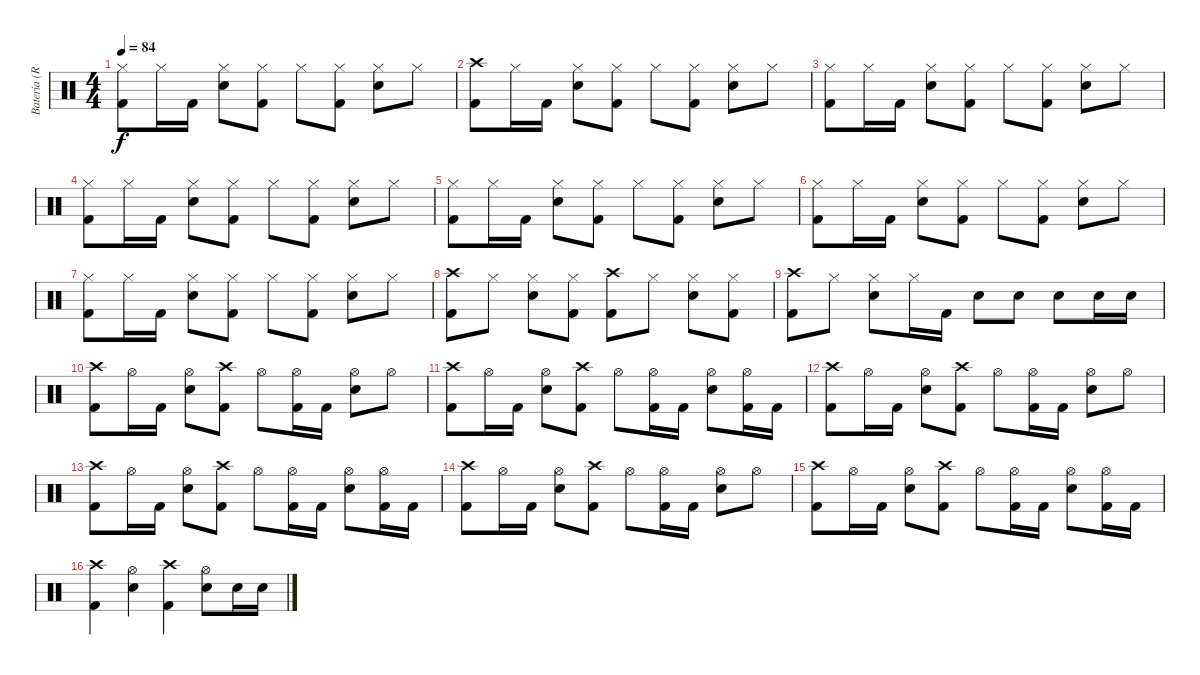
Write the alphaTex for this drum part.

\track ("Bateria (Robert Sweet)" "Bateria (R") {instrument percussion}
\staff {score}
\articulation defaults
\ts (4 4)
\tempo 84
\clef neutral
\ks c
("Hi-Hat (closed)" "Kick (hit) 2").8{dy f} "Hi-Hat (closed)".16 "Kick (hit) 2".16 ("Electric Snare (hit)" "Hi-Hat (closed)").8 ("Hi-Hat (closed)" "Kick (hit) 2").8 "Hi-Hat (closed)".8 ("Hi-Hat (closed)" "Kick (hit) 2").8 ("Electric Snare (hit)" "Hi-Hat (closed)").8 "Hi-Hat (closed)".8 |
("Crash high (hit)" "Kick (hit) 2").8 "Hi-Hat (closed)".16 "Kick (hit) 2".16 ("Electric Snare (hit)" "Hi-Hat (closed)").8 ("Hi-Hat (closed)" "Kick (hit) 2").8 "Hi-Hat (closed)".8 ("Hi-Hat (closed)" "Kick (hit) 2").8 ("Electric Snare (hit)" "Hi-Hat (closed)").8 "Hi-Hat (closed)".8 |
("Hi-Hat (closed)" "Kick (hit) 2").8 "Hi-Hat (closed)".16 "Kick (hit) 2".16 ("Electric Snare (hit)" "Hi-Hat (closed)").8 ("Hi-Hat (closed)" "Kick (hit) 2").8 "Hi-Hat (closed)".8 ("Hi-Hat (closed)" "Kick (hit) 2").8 ("Electric Snare (hit)" "Hi-Hat (closed)").8 "Hi-Hat (closed)".8 |
("Hi-Hat (closed)" "Kick (hit) 2").8 "Hi-Hat (closed)".16 "Kick (hit) 2".16 ("Electric Snare (hit)" "Hi-Hat (closed)").8 ("Hi-Hat (closed)" "Kick (hit) 2").8 "Hi-Hat (closed)".8 ("Hi-Hat (closed)" "Kick (hit) 2").8 ("Electric Snare (hit)" "Hi-Hat (closed)").8 "Hi-Hat (closed)".8 |
("Hi-Hat (closed)" "Kick (hit) 2").8 "Hi-Hat (closed)".16 "Kick (hit) 2".16 ("Electric Snare (hit)" "Hi-Hat (closed)").8 ("Hi-Hat (closed)" "Kick (hit) 2").8 "Hi-Hat (closed)".8 ("Hi-Hat (closed)" "Kick (hit) 2").8 ("Electric Snare (hit)" "Hi-Hat (closed)").8 "Hi-Hat (closed)".8 |
("Hi-Hat (closed)" "Kick (hit) 2").8 "Hi-Hat (closed)".16 "Kick (hit) 2".16 ("Electric Snare (hit)" "Hi-Hat (closed)").8 ("Hi-Hat (closed)" "Kick (hit) 2").8 "Hi-Hat (closed)".8 ("Hi-Hat (closed)" "Kick (hit) 2").8 ("Electric Snare (hit)" "Hi-Hat (closed)").8 "Hi-Hat (closed)".8 |
("Hi-Hat (closed)" "Kick (hit) 2").8 "Hi-Hat (closed)".16 "Kick (hit) 2".16 ("Electric Snare (hit)" "Hi-Hat (closed)").8 ("Hi-Hat (closed)" "Kick (hit) 2").8 "Hi-Hat (closed)".8 ("Hi-Hat (closed)" "Kick (hit) 2").8 ("Electric Snare (hit)" "Hi-Hat (closed)").8 "Hi-Hat (closed)".8 |
("Crash high (hit)" "Kick (hit) 2").8 "Hi-Hat (closed)".8 ("Electric Snare (hit)" "Hi-Hat (closed)").8 ("Hi-Hat (closed)" "Kick (hit) 2").8 ("Crash high (hit)" "Kick (hit) 2").8 "Hi-Hat (closed)".8 ("Electric Snare (hit)" "Hi-Hat (closed)").8 ("Hi-Hat (closed)" "Kick (hit) 2").8 |
("Crash high (hit)" "Kick (hit) 2").8 "Hi-Hat (closed)".8 ("Electric Snare (hit)" "Hi-Hat (closed)").8 "Hi-Hat (closed)".16 "Kick (hit) 2".16 "Electric Snare (hit)".8 "Electric Snare (hit)".8 "Electric Snare (hit)".8 "Electric Snare (hit)".16 "Electric Snare (hit)".16 |
("Crash high (hit)" "Kick (hit) 2").8 "Hi-Hat (open)".16 "Kick (hit) 2".16 ("Electric Snare (hit)" "Hi-Hat (open)").8 ("Crash high (hit)" "Kick (hit) 2").8 "Hi-Hat (open)".8 ("Hi-Hat (open)" "Kick (hit) 2").16 "Kick (hit) 2".16 ("Electric Snare (hit)" "Hi-Hat (open)").8 "Hi-Hat (open)".8 |
("Crash high (hit)" "Kick (hit) 2").8 "Hi-Hat (open)".16 "Kick (hit) 2".16 ("Electric Snare (hit)" "Hi-Hat (open)").8 ("Crash high (hit)" "Kick (hit) 2").8 "Hi-Hat (open)".8 ("Hi-Hat (open)" "Kick (hit) 2").16 "Kick (hit) 2".16 ("Electric Snare (hit)" "Hi-Hat (open)").8 ("Hi-Hat (open)" "Kick (hit) 2").16 "Kick (hit) 2".16 |
("Crash high (hit)" "Kick (hit) 2").8 "Hi-Hat (open)".16 "Kick (hit) 2".16 ("Electric Snare (hit)" "Hi-Hat (open)").8 ("Crash high (hit)" "Kick (hit) 2").8 "Hi-Hat (open)".8 ("Hi-Hat (open)" "Kick (hit) 2").16 "Kick (hit) 2".16 ("Electric Snare (hit)" "Hi-Hat (open)").8 "Hi-Hat (open)".8 |
("Crash high (hit)" "Kick (hit) 2").8 "Hi-Hat (open)".16 "Kick (hit) 2".16 ("Electric Snare (hit)" "Hi-Hat (open)").8 ("Crash high (hit)" "Kick (hit) 2").8 "Hi-Hat (open)".8 ("Hi-Hat (open)" "Kick (hit) 2").16 "Kick (hit) 2".16 ("Electric Snare (hit)" "Hi-Hat (open)").8 ("Hi-Hat (open)" "Kick (hit) 2").16 "Kick (hit) 2".16 |
("Crash high (hit)" "Kick (hit) 2").8 "Hi-Hat (open)".16 "Kick (hit) 2".16 ("Electric Snare (hit)" "Hi-Hat (open)").8 ("Crash high (hit)" "Kick (hit) 2").8 "Hi-Hat (open)".8 ("Hi-Hat (open)" "Kick (hit) 2").16 "Kick (hit) 2".16 ("Electric Snare (hit)" "Hi-Hat (open)").8 "Hi-Hat (open)".8 |
("Crash high (hit)" "Kick (hit) 2").8 "Hi-Hat (open)".16 "Kick (hit) 2".16 ("Electric Snare (hit)" "Hi-Hat (open)").8 ("Crash high (hit)" "Kick (hit) 2").8 "Hi-Hat (open)".8 ("Hi-Hat (open)" "Kick (hit) 2").16 "Kick (hit) 2".16 ("Electric Snare (hit)" "Hi-Hat (open)").8 ("Hi-Hat (open)" "Kick (hit) 2").16 "Kick (hit) 2".16 |
("Crash high (hit)" "Kick (hit) 2").4 ("Electric Snare (hit)" "Hi-Hat (open)").4 ("Crash high (hit)" "Kick (hit) 2").4 ("Electric Snare (hit)" "Hi-Hat (open)").8 "Electric Snare (hit)".16 "Electric Snare (hit)".16
